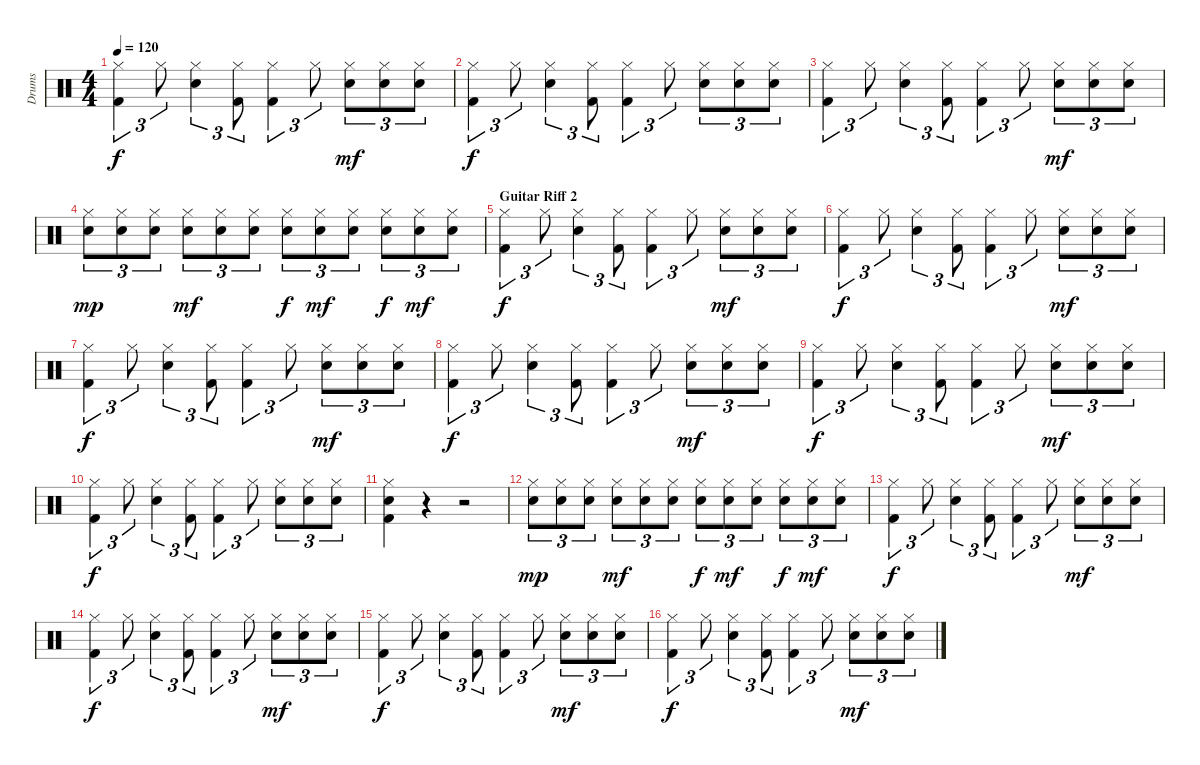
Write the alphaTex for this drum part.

\track ("Drums" "Drums") {instrument percussion}
\staff {score}
\articulation defaults
\ts (4 4)
\tempo 120
\clef neutral
\ks c
("Hi-Hat (closed)" "Kick (hit) 2").4{tu (3 2) dy f} "Hi-Hat (closed)".8{tu (3 2)} ("Hi-Hat (closed)" "Electric Snare (hit)").4{tu (3 2)} ("Hi-Hat (closed)" "Kick (hit) 2").8{tu (3 2)} ("Hi-Hat (closed)" "Kick (hit) 2").4{tu (3 2)} "Hi-Hat (closed)".8{tu (3 2)} ("Hi-Hat (closed)" "Electric Snare (hit)").8{tu (3 2) dy mf} ("Hi-Hat (closed)" "Electric Snare (hit)").8{tu (3 2)} ("Hi-Hat (closed)" "Electric Snare (hit)").8{tu (3 2)} |
("Hi-Hat (closed)" "Kick (hit) 2").4{tu (3 2) dy f} "Hi-Hat (closed)".8{tu (3 2)} ("Hi-Hat (closed)" "Electric Snare (hit)").4{tu (3 2)} ("Hi-Hat (closed)" "Kick (hit) 2").8{tu (3 2)} ("Hi-Hat (closed)" "Kick (hit) 2").4{tu (3 2)} "Hi-Hat (closed)".8{tu (3 2)} ("Hi-Hat (closed)" "Electric Snare (hit)").8{tu (3 2)} ("Hi-Hat (closed)" "Electric Snare (hit)").8{tu (3 2)} ("Hi-Hat (closed)" "Electric Snare (hit)").8{tu (3 2)} |
("Hi-Hat (closed)" "Kick (hit) 2").4{tu (3 2)} "Hi-Hat (closed)".8{tu (3 2)} ("Hi-Hat (closed)" "Electric Snare (hit)").4{tu (3 2)} ("Hi-Hat (closed)" "Kick (hit) 2").8{tu (3 2)} ("Hi-Hat (closed)" "Kick (hit) 2").4{tu (3 2)} "Hi-Hat (closed)".8{tu (3 2)} ("Hi-Hat (closed)" "Electric Snare (hit)").8{tu (3 2) dy mf} ("Hi-Hat (closed)" "Electric Snare (hit)").8{tu (3 2)} ("Hi-Hat (closed)" "Electric Snare (hit)").8{tu (3 2)} |
("Hi-Hat (closed)" "Electric Snare (hit)").8{tu (3 2) dy mp} ("Hi-Hat (closed)" "Electric Snare (hit)").8{tu (3 2)} ("Hi-Hat (closed)" "Electric Snare (hit)").8{tu (3 2)} ("Hi-Hat (closed)" "Electric Snare (hit)").8{tu (3 2) dy mf} ("Hi-Hat (closed)" "Electric Snare (hit)").8{tu (3 2)} ("Hi-Hat (closed)" "Electric Snare (hit)").8{tu (3 2)} ("Hi-Hat (closed)" "Electric Snare (hit)").8{tu (3 2) dy f} ("Hi-Hat (closed)" "Electric Snare (hit)").8{tu (3 2) dy mf} ("Hi-Hat (closed)" "Electric Snare (hit)").8{tu (3 2)} ("Hi-Hat (closed)" "Electric Snare (hit)").8{tu (3 2) dy f} ("Hi-Hat (closed)" "Electric Snare (hit)").8{tu (3 2) dy mf} ("Hi-Hat (closed)" "Electric Snare (hit)").8{tu (3 2)} |
\section ("" "Guitar Riff 2")
("Hi-Hat (closed)" "Kick (hit) 2").4{tu (3 2) dy f} "Hi-Hat (closed)".8{tu (3 2)} ("Hi-Hat (closed)" "Electric Snare (hit)").4{tu (3 2)} ("Hi-Hat (closed)" "Kick (hit) 2").8{tu (3 2)} ("Hi-Hat (closed)" "Kick (hit) 2").4{tu (3 2)} "Hi-Hat (closed)".8{tu (3 2)} ("Hi-Hat (closed)" "Electric Snare (hit)").8{tu (3 2) dy mf} ("Hi-Hat (closed)" "Electric Snare (hit)").8{tu (3 2)} ("Hi-Hat (closed)" "Electric Snare (hit)").8{tu (3 2)} |
("Hi-Hat (closed)" "Kick (hit) 2").4{tu (3 2) dy f} "Hi-Hat (closed)".8{tu (3 2)} ("Hi-Hat (closed)" "Electric Snare (hit)").4{tu (3 2)} ("Hi-Hat (closed)" "Kick (hit) 2").8{tu (3 2)} ("Hi-Hat (closed)" "Kick (hit) 2").4{tu (3 2)} "Hi-Hat (closed)".8{tu (3 2)} ("Hi-Hat (closed)" "Electric Snare (hit)").8{tu (3 2) dy mf} ("Hi-Hat (closed)" "Electric Snare (hit)").8{tu (3 2)} ("Hi-Hat (closed)" "Electric Snare (hit)").8{tu (3 2)} |
("Hi-Hat (closed)" "Kick (hit) 2").4{tu (3 2) dy f} "Hi-Hat (closed)".8{tu (3 2)} ("Hi-Hat (closed)" "Electric Snare (hit)").4{tu (3 2)} ("Hi-Hat (closed)" "Kick (hit) 2").8{tu (3 2)} ("Hi-Hat (closed)" "Kick (hit) 2").4{tu (3 2)} "Hi-Hat (closed)".8{tu (3 2)} ("Hi-Hat (closed)" "Electric Snare (hit)").8{tu (3 2) dy mf} ("Hi-Hat (closed)" "Electric Snare (hit)").8{tu (3 2)} ("Hi-Hat (closed)" "Electric Snare (hit)").8{tu (3 2)} |
("Hi-Hat (closed)" "Kick (hit) 2").4{tu (3 2) dy f} "Hi-Hat (closed)".8{tu (3 2)} ("Hi-Hat (closed)" "Electric Snare (hit)").4{tu (3 2)} ("Hi-Hat (closed)" "Kick (hit) 2").8{tu (3 2)} ("Hi-Hat (closed)" "Kick (hit) 2").4{tu (3 2)} "Hi-Hat (closed)".8{tu (3 2)} ("Hi-Hat (closed)" "Electric Snare (hit)").8{tu (3 2) dy mf} ("Hi-Hat (closed)" "Electric Snare (hit)").8{tu (3 2)} ("Hi-Hat (closed)" "Electric Snare (hit)").8{tu (3 2)} |
("Hi-Hat (closed)" "Kick (hit) 2").4{tu (3 2) dy f} "Hi-Hat (closed)".8{tu (3 2)} ("Hi-Hat (closed)" "Electric Snare (hit)").4{tu (3 2)} ("Hi-Hat (closed)" "Kick (hit) 2").8{tu (3 2)} ("Hi-Hat (closed)" "Kick (hit) 2").4{tu (3 2)} "Hi-Hat (closed)".8{tu (3 2)} ("Hi-Hat (closed)" "Electric Snare (hit)").8{tu (3 2) dy mf} ("Hi-Hat (closed)" "Electric Snare (hit)").8{tu (3 2)} ("Hi-Hat (closed)" "Electric Snare (hit)").8{tu (3 2)} |
("Hi-Hat (closed)" "Kick (hit) 2").4{tu (3 2) dy f} "Hi-Hat (closed)".8{tu (3 2)} ("Hi-Hat (closed)" "Electric Snare (hit)").4{tu (3 2)} ("Hi-Hat (closed)" "Kick (hit) 2").8{tu (3 2)} ("Hi-Hat (closed)" "Kick (hit) 2").4{tu (3 2)} "Hi-Hat (closed)".8{tu (3 2)} ("Hi-Hat (closed)" "Electric Snare (hit)").8{tu (3 2)} ("Hi-Hat (closed)" "Electric Snare (hit)").8{tu (3 2)} ("Hi-Hat (closed)" "Electric Snare (hit)").8{tu (3 2)} |
("Hi-Hat (closed)" "Electric Snare (hit)" "Kick (hit) 2").4 r.4 r.2 |
("Hi-Hat (closed)" "Electric Snare (hit)").8{tu (3 2) dy mp} ("Hi-Hat (closed)" "Electric Snare (hit)").8{tu (3 2)} ("Hi-Hat (closed)" "Electric Snare (hit)").8{tu (3 2)} ("Hi-Hat (closed)" "Electric Snare (hit)").8{tu (3 2) dy mf} ("Hi-Hat (closed)" "Electric Snare (hit)").8{tu (3 2)} ("Hi-Hat (closed)" "Electric Snare (hit)").8{tu (3 2)} ("Hi-Hat (closed)" "Electric Snare (hit)").8{tu (3 2) dy f} ("Hi-Hat (closed)" "Electric Snare (hit)").8{tu (3 2) dy mf} ("Hi-Hat (closed)" "Electric Snare (hit)").8{tu (3 2)} ("Hi-Hat (closed)" "Electric Snare (hit)").8{tu (3 2) dy f} ("Hi-Hat (closed)" "Electric Snare (hit)").8{tu (3 2) dy mf} ("Hi-Hat (closed)" "Electric Snare (hit)").8{tu (3 2)} |
("Hi-Hat (closed)" "Kick (hit) 2").4{tu (3 2) dy f} "Hi-Hat (closed)".8{tu (3 2)} ("Hi-Hat (closed)" "Electric Snare (hit)").4{tu (3 2)} ("Hi-Hat (closed)" "Kick (hit) 2").8{tu (3 2)} ("Hi-Hat (closed)" "Kick (hit) 2").4{tu (3 2)} "Hi-Hat (closed)".8{tu (3 2)} ("Hi-Hat (closed)" "Electric Snare (hit)").8{tu (3 2) dy mf} ("Hi-Hat (closed)" "Electric Snare (hit)").8{tu (3 2)} ("Hi-Hat (closed)" "Electric Snare (hit)").8{tu (3 2)} |
("Hi-Hat (closed)" "Kick (hit) 2").4{tu (3 2) dy f} "Hi-Hat (closed)".8{tu (3 2)} ("Hi-Hat (closed)" "Electric Snare (hit)").4{tu (3 2)} ("Hi-Hat (closed)" "Kick (hit) 2").8{tu (3 2)} ("Hi-Hat (closed)" "Kick (hit) 2").4{tu (3 2)} "Hi-Hat (closed)".8{tu (3 2)} ("Hi-Hat (closed)" "Electric Snare (hit)").8{tu (3 2) dy mf} ("Hi-Hat (closed)" "Electric Snare (hit)").8{tu (3 2)} ("Hi-Hat (closed)" "Electric Snare (hit)").8{tu (3 2)} |
("Hi-Hat (closed)" "Kick (hit) 2").4{tu (3 2) dy f} "Hi-Hat (closed)".8{tu (3 2)} ("Hi-Hat (closed)" "Electric Snare (hit)").4{tu (3 2)} ("Hi-Hat (closed)" "Kick (hit) 2").8{tu (3 2)} ("Hi-Hat (closed)" "Kick (hit) 2").4{tu (3 2)} "Hi-Hat (closed)".8{tu (3 2)} ("Hi-Hat (closed)" "Electric Snare (hit)").8{tu (3 2) dy mf} ("Hi-Hat (closed)" "Electric Snare (hit)").8{tu (3 2)} ("Hi-Hat (closed)" "Electric Snare (hit)").8{tu (3 2)} |
("Hi-Hat (closed)" "Kick (hit) 2").4{tu (3 2) dy f} "Hi-Hat (closed)".8{tu (3 2)} ("Hi-Hat (closed)" "Electric Snare (hit)").4{tu (3 2)} ("Hi-Hat (closed)" "Kick (hit) 2").8{tu (3 2)} ("Hi-Hat (closed)" "Kick (hit) 2").4{tu (3 2)} "Hi-Hat (closed)".8{tu (3 2)} ("Hi-Hat (closed)" "Electric Snare (hit)").8{tu (3 2) dy mf} ("Hi-Hat (closed)" "Electric Snare (hit)").8{tu (3 2)} ("Hi-Hat (closed)" "Electric Snare (hit)").8{tu (3 2)}
